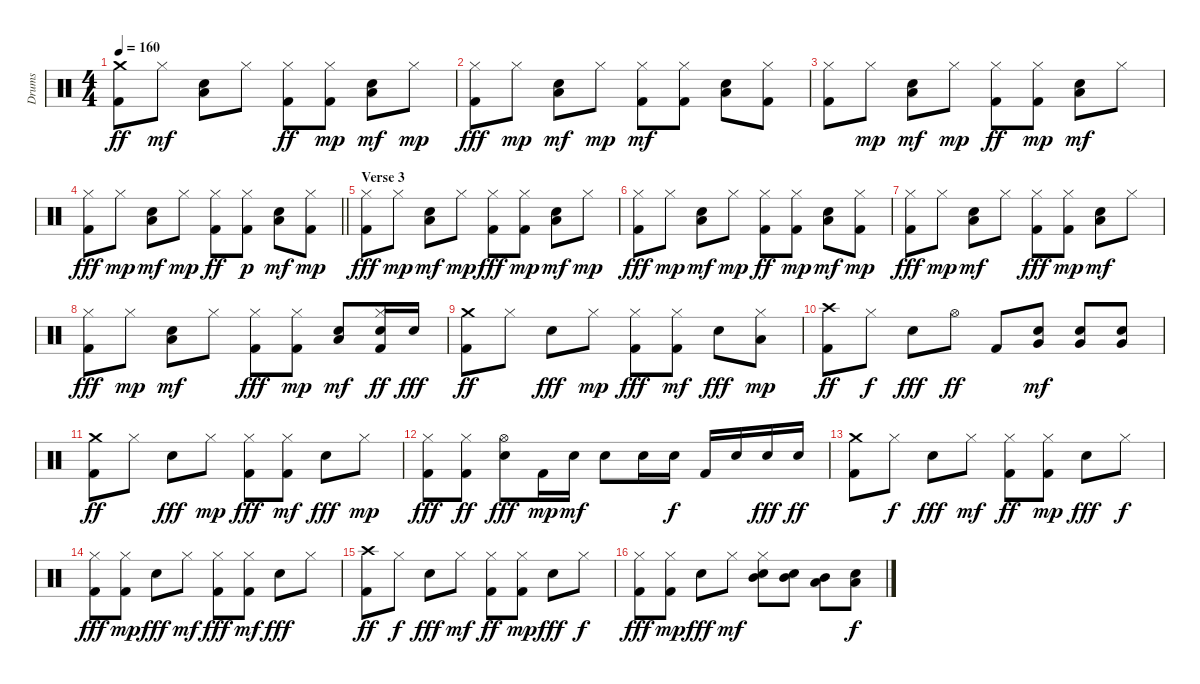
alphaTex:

\track ("Drums" "Drums") {instrument percussion}
\staff {score}
\articulation defaults
\ts (4 4)
\tempo 160
\clef neutral
\ks c
("Kick (hit) 2" "Crash medium (hit)").8{dy ff} "Hi-Hat (closed)".8{dy mf} ("Electric Snare (hit)" "Low Tom (hit)").8 "Hi-Hat (closed)".8 ("Kick (hit) 2" "Hi-Hat (closed)").8{dy ff} ("Kick (hit) 2" "Hi-Hat (closed)").8{dy mp} ("Electric Snare (hit)" "Low Tom (hit)").8{dy mf} "Hi-Hat (closed)".8{dy mp} |
("Kick (hit) 2" "Hi-Hat (closed)").8{dy fff} "Hi-Hat (closed)".8{dy mp} ("Electric Snare (hit)" "Low Tom (hit)").8{dy mf} "Hi-Hat (closed)".8{dy mp} ("Kick (hit) 2" "Hi-Hat (closed)").8{dy mf} ("Kick (hit) 2" "Hi-Hat (closed)").8 ("Electric Snare (hit)" "Low Tom (hit)").8 ("Kick (hit) 2" "Hi-Hat (closed)").8 |
("Kick (hit) 2" "Hi-Hat (closed)").8 "Hi-Hat (closed)".8{dy mp} ("Electric Snare (hit)" "Low Tom (hit)").8{dy mf} "Hi-Hat (closed)".8{dy mp} ("Kick (hit) 2" "Hi-Hat (closed)").8{dy ff} ("Kick (hit) 2" "Hi-Hat (closed)").8{dy mp} ("Electric Snare (hit)" "Low Tom (hit)").8{dy mf} "Hi-Hat (closed)".8 |
\barLineRight lightlight
("Kick (hit) 2" "Hi-Hat (closed)").8{dy fff} "Hi-Hat (closed)".8{dy mp} ("Electric Snare (hit)" "Low Tom (hit)").8{dy mf} "Hi-Hat (closed)".8{dy mp} ("Kick (hit) 2" "Hi-Hat (closed)").8{dy ff} ("Kick (hit) 2" "Hi-Hat (closed)").8{dy p} ("Electric Snare (hit)" "Low Tom (hit)").8{dy mf} ("Kick (hit) 2" "Hi-Hat (closed)").8{dy mp} |
\section ("" "Verse 3")
("Kick (hit) 2" "Hi-Hat (closed)").8{dy fff} "Hi-Hat (closed)".8{dy mp} ("Electric Snare (hit)" "Low Tom (hit)").8{dy mf} "Hi-Hat (closed)".8{dy mp} ("Kick (hit) 2" "Hi-Hat (closed)").8{dy fff} ("Kick (hit) 2" "Hi-Hat (closed)").8{dy mp} ("Electric Snare (hit)" "Low Tom (hit)").8{dy mf} "Hi-Hat (closed)".8{dy mp} |
("Kick (hit) 2" "Hi-Hat (closed)").8{dy fff} "Hi-Hat (closed)".8{dy mp} ("Electric Snare (hit)" "Low Tom (hit)").8{dy mf} "Hi-Hat (closed)".8{dy mp} ("Kick (hit) 2" "Hi-Hat (closed)").8{dy ff} ("Kick (hit) 2" "Hi-Hat (closed)").8{dy mp} ("Electric Snare (hit)" "Low Tom (hit)").8{dy mf} ("Kick (hit) 2" "Hi-Hat (closed)").8{dy mp} |
("Kick (hit) 2" "Hi-Hat (closed)").8{dy fff} "Hi-Hat (closed)".8{dy mp} ("Electric Snare (hit)" "Low Tom (hit)").8{dy mf} "Hi-Hat (closed)".8 ("Kick (hit) 2" "Hi-Hat (closed)").8{dy fff} ("Kick (hit) 2" "Hi-Hat (closed)").8{dy mp} ("Electric Snare (hit)" "Low Tom (hit)").8{dy mf} "Hi-Hat (closed)".8 |
("Kick (hit) 2" "Hi-Hat (closed)").8{dy fff} "Hi-Hat (closed)".8{dy mp} ("Electric Snare (hit)" "Low Tom (hit)").8{dy mf} "Hi-Hat (closed)".8 ("Kick (hit) 2" "Hi-Hat (closed)").8{dy fff} ("Kick (hit) 2" "Hi-Hat (closed)").8{dy mp} ("Electric Snare (hit)" "Low Tom (hit)").8{dy mf} ("Kick (hit) 2" "Electric Snare (hit)" "Hi-Hat (closed)").16{dy ff} "Electric Snare (hit)".16{dy fff} |
("Kick (hit) 2" "Crash medium (hit)").8{dy ff} "Hi-Hat (closed)".8 "Electric Snare (hit)".8{dy fff} "Hi-Hat (closed)".8{dy mp} ("Kick (hit) 2" "Hi-Hat (closed)").8{dy fff} ("Kick (hit) 2" "Hi-Hat (closed)").8{dy mf} "Electric Snare (hit)".8{dy fff} ("Hi-Hat (closed)" "Low Tom (hit)").8{dy mp} |
("Kick (hit) 2" "Crash high (hit)").8{dy ff} "Hi-Hat (closed)".8{dy f} "Electric Snare (hit)".8{dy fff} "Hi-Hat (open)".8{dy ff} "Kick (hit) 2".8 ("Electric Snare (hit)" "Very Low Tom (hit)").8{dy mf} ("Electric Snare (hit)" "Very Low Tom (hit)").8 ("Electric Snare (hit)" "Very Low Tom (hit)").8 |
("Kick (hit) 2" "Crash medium (hit)").8{dy ff} "Hi-Hat (closed)".8 "Electric Snare (hit)".8{dy fff} "Hi-Hat (closed)".8{dy mp} ("Kick (hit) 2" "Hi-Hat (closed)").8{dy fff} ("Kick (hit) 2" "Hi-Hat (closed)").8{dy mf} "Electric Snare (hit)".8{dy fff} "Hi-Hat (closed)".8{dy mp} |
("Kick (hit) 2" "Hi-Hat (closed)").8{dy fff} ("Kick (hit) 2" "Hi-Hat (closed)").8{dy ff} ("Electric Snare (hit)" "Hi-Hat (open)").8{dy fff} "Kick (hit) 2".16{dy mp} "Electric Snare (hit)".16{dy mf} "Electric Snare (hit)".8 "Electric Snare (hit)".16 "Electric Snare (hit)".16{dy f} "Kick (hit) 2".16 "Electric Snare (hit)".16 "Electric Snare (hit)".16{dy fff} "Electric Snare (hit)".16{dy ff} |
("Kick (hit) 2" "Crash medium (hit)").8 "Hi-Hat (closed)".8{dy f} "Electric Snare (hit)".8{dy fff} "Hi-Hat (closed)".8{dy mf} ("Kick (hit) 2" "Hi-Hat (closed)").8{dy ff} ("Kick (hit) 2" "Hi-Hat (closed)").8{dy mp} "Electric Snare (hit)".8{dy fff} "Hi-Hat (closed)".8{dy f} |
("Kick (hit) 2" "Hi-Hat (closed)").8{dy fff} ("Kick (hit) 2" "Hi-Hat (closed)").8{dy mp} "Electric Snare (hit)".8{dy fff} "Hi-Hat (closed)".8{dy mf} ("Kick (hit) 2" "Hi-Hat (closed)").8{dy fff} ("Kick (hit) 2" "Hi-Hat (closed)").8{dy mf} "Electric Snare (hit)".8{dy fff} "Hi-Hat (closed)".8 |
("Kick (hit) 2" "Crash high (hit)").8{dy ff} "Hi-Hat (closed)".8{dy f} "Electric Snare (hit)".8{dy fff} "Hi-Hat (closed)".8{dy mf} ("Kick (hit) 2" "Hi-Hat (closed)").8{dy ff} ("Kick (hit) 2" "Hi-Hat (closed)").8{dy mp} "Electric Snare (hit)".8{dy fff} "Hi-Hat (closed)".8{dy f} |
("Kick (hit) 2" "Hi-Hat (closed)").8{dy fff} ("Kick (hit) 2" "Hi-Hat (closed)").8{dy mp} "Electric Snare (hit)".8{dy fff} "Hi-Hat (closed)".8{dy mf} ("Electric Snare (hit)" "Hi-Hat (closed)" "Mid Tom (hit)").8 ("Electric Snare (hit)" "Mid Tom (hit)").8 ("Low Tom (hit)" "Mid Tom (hit)").8 ("Electric Snare (hit)" "Low Tom (hit)").8{dy f}
